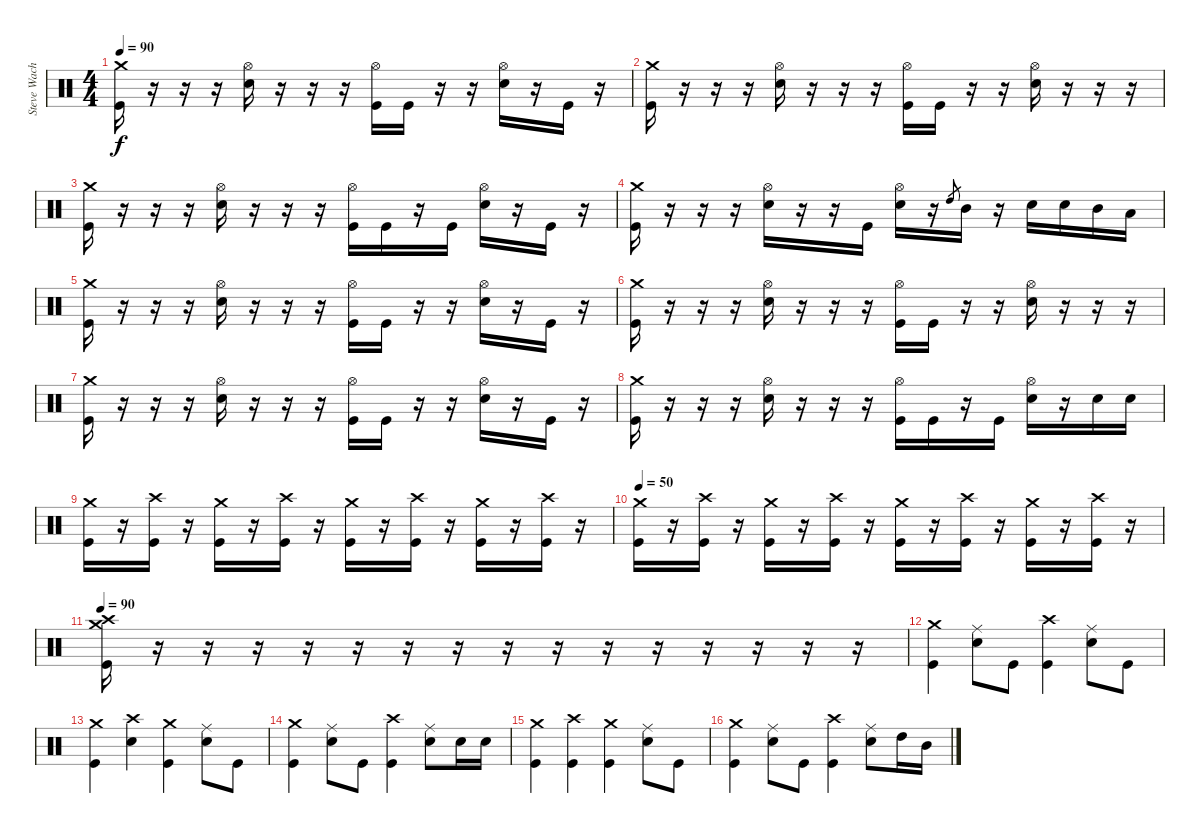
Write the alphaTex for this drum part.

\track ("Steve Wacholz" "Steve Wach") {instrument percussion}
\staff {score}
\articulation defaults
\ts (4 4)
\tempo 90
\clef neutral
\ks c
("Crash medium (hit)" "Kick (hit)").16{dy f} r.16 r.16 r.16 ("Hi-Hat (open)" "Electric Snare (hit)").16 r.16 r.16 r.16 ("Hi-Hat (open)" "Kick (hit)").16 "Kick (hit)".16 r.16 r.16 ("Hi-Hat (open)" "Electric Snare (hit)").16 r.16 "Kick (hit)".16 r.16 |
("Crash medium (hit)" "Kick (hit)").16 r.16 r.16 r.16 ("Hi-Hat (open)" "Electric Snare (hit)").16 r.16 r.16 r.16 ("Hi-Hat (open)" "Kick (hit)").16 "Kick (hit)".16 r.16 r.16 ("Hi-Hat (open)" "Electric Snare (hit)").16 r.16 r.16 r.16 |
("Crash medium (hit)" "Kick (hit)").16 r.16 r.16 r.16 ("Hi-Hat (open)" "Electric Snare (hit)").16 r.16 r.16 r.16 ("Hi-Hat (open)" "Kick (hit)").16 "Kick (hit)".16 r.16 "Kick (hit)".16 ("Hi-Hat (open)" "Electric Snare (hit)").16 r.16 "Kick (hit)".16 r.16 |
("Crash medium (hit)" "Kick (hit)").16 r.16 r.16 r.16 ("Hi-Hat (open)" "Electric Snare (hit)").16 r.16 r.16 "Kick (hit)".16 ("Hi-Hat (open)" "Electric Snare (hit)").16 r.16 "High Tom (hit)".8{gr} "Mid Tom (hit)".16 r.16 "Electric Snare (hit)".16 "Electric Snare (hit)".16 "Mid Tom (hit)".16 "Low Tom (hit)".16 |
("Crash medium (hit)" "Kick (hit)").16 r.16 r.16 r.16 ("Hi-Hat (open)" "Electric Snare (hit)").16 r.16 r.16 r.16 ("Hi-Hat (open)" "Kick (hit)").16 "Kick (hit)".16 r.16 r.16 ("Hi-Hat (open)" "Electric Snare (hit)").16 r.16 "Kick (hit)".16 r.16 |
("Crash medium (hit)" "Kick (hit)").16 r.16 r.16 r.16 ("Hi-Hat (open)" "Electric Snare (hit)").16 r.16 r.16 r.16 ("Hi-Hat (open)" "Kick (hit)").16 "Kick (hit)".16 r.16 r.16 ("Hi-Hat (open)" "Electric Snare (hit)").16 r.16 r.16 r.16 |
("Crash medium (hit)" "Kick (hit)").16 r.16 r.16 r.16 ("Hi-Hat (open)" "Electric Snare (hit)").16 r.16 r.16 r.16 ("Hi-Hat (open)" "Kick (hit)").16 "Kick (hit)".16 r.16 r.16 ("Hi-Hat (open)" "Electric Snare (hit)").16 r.16 "Kick (hit)".16 r.16 |
("Crash medium (hit)" "Kick (hit)").16 r.16 r.16 r.16 ("Hi-Hat (open)" "Electric Snare (hit)").16 r.16 r.16 r.16 ("Hi-Hat (open)" "Kick (hit)").16 "Kick (hit)".16 r.16 "Kick (hit)".16 ("Hi-Hat (open)" "Electric Snare (hit)").16 r.16 "Electric Snare (hit)".16 "Electric Snare (hit)".16 |
("Crash medium (hit)" "Kick (hit)").16 r.16 ("Crash high (hit)" "Kick (hit)").16 r.16 ("Crash medium (hit)" "Kick (hit)").16 r.16 ("Crash high (hit)" "Kick (hit)").16 r.16 ("Crash medium (hit)" "Kick (hit)").16 r.16 ("Crash high (hit)" "Kick (hit)").16 r.16 ("Crash medium (hit)" "Kick (hit)").16 r.16 ("Crash high (hit)" "Kick (hit)").16 r.16 |
\tempo 50
("Crash medium (hit)" "Kick (hit)").16 r.16 ("Crash high (hit)" "Kick (hit)").16 r.16 ("Crash medium (hit)" "Kick (hit)").16 r.16 ("Crash high (hit)" "Kick (hit)").16 r.16 ("Crash medium (hit)" "Kick (hit)").16 r.16 ("Crash high (hit)" "Kick (hit)").16 r.16 ("Crash medium (hit)" "Kick (hit)").16 r.16 ("Crash high (hit)" "Kick (hit)").16 r.16 |
\tempo 90
("Crash medium (hit)" "Crash high (hit)" "Kick (hit)").16 r.16 r.16 r.16 r.16 r.16 r.16 r.16 r.16 r.16 r.16 r.16 r.16 r.16 r.16 r.16 |
("Crash medium (hit)" "Kick (hit)").4 ("Ride (middle)" "Electric Snare (hit)").8 "Kick (hit)".8 ("Crash high (hit)" "Kick (hit)").4 ("Ride (middle)" "Electric Snare (hit)").8 "Kick (hit)".8 |
("Crash medium (hit)" "Kick (hit)").4 ("Crash high (hit)" "Electric Snare (hit)").4 ("Crash medium (hit)" "Kick (hit)").4 ("Ride (middle)" "Electric Snare (hit)").8 "Kick (hit)".8 |
("Crash medium (hit)" "Kick (hit)").4 ("Ride (middle)" "Electric Snare (hit)").8 "Kick (hit)".8 ("Crash high (hit)" "Kick (hit)").4 ("Ride (middle)" "Electric Snare (hit)").8 "Electric Snare (hit)".16 "Electric Snare (hit)".16 |
("Crash medium (hit)" "Kick (hit)").4 ("Crash high (hit)" "Kick (hit)").4 ("Crash medium (hit)" "Kick (hit)").4 ("Ride (middle)" "Electric Snare (hit)").8 "Kick (hit)".8 |
("Crash medium (hit)" "Kick (hit)").4 ("Ride (middle)" "Electric Snare (hit)").8 "Kick (hit)".8 ("Crash high (hit)" "Kick (hit)").4 ("Ride (middle)" "Electric Snare (hit)").8 "High Tom (hit)".16 "Mid Tom (hit)".16
